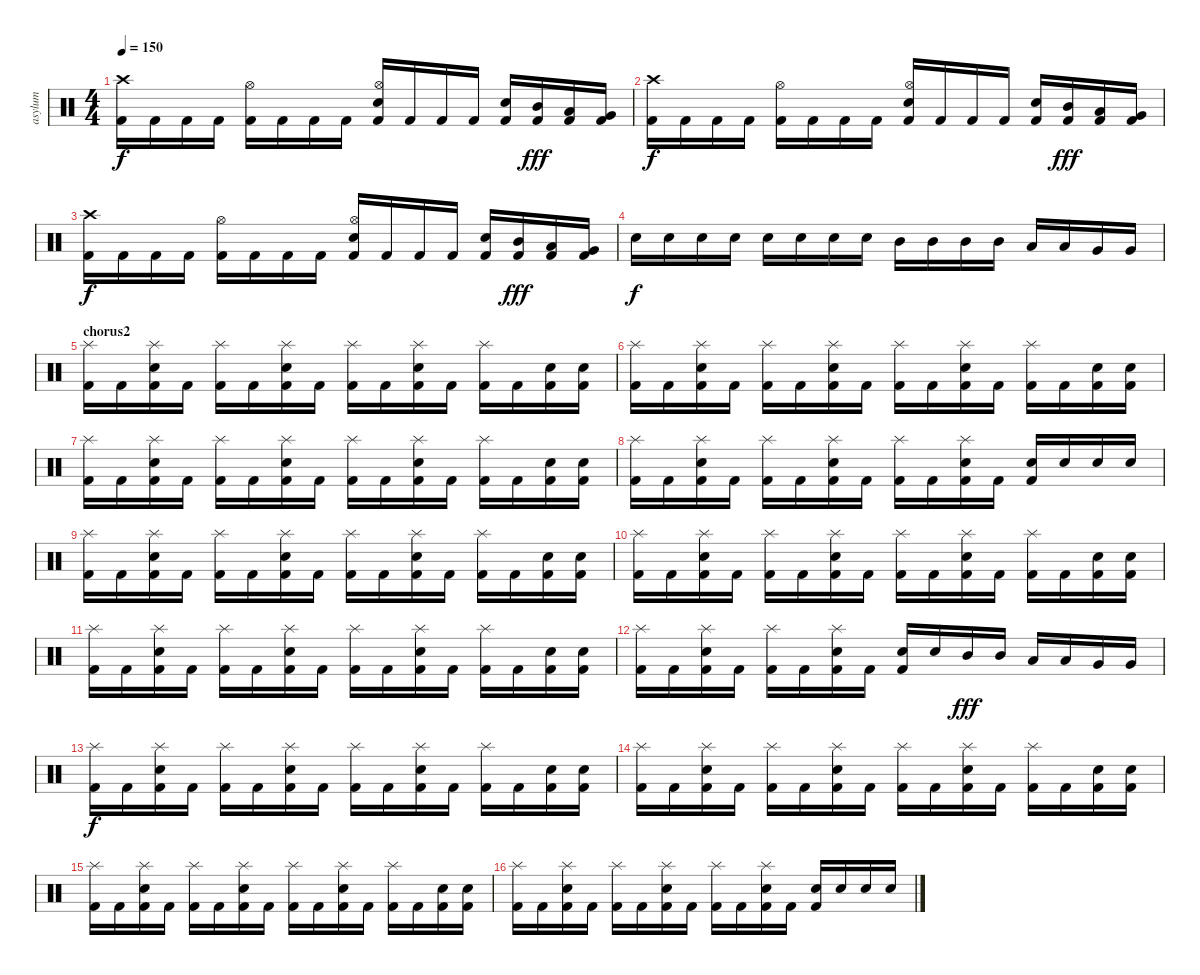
\track ("asylum" "asylum") {instrument percussion}
\staff {score}
\articulation defaults
\ts (4 4)
\tempo 150
\clef neutral
\ks c
("Crash high (hit)" "Kick (hit) 2").16{dy f} "Kick (hit) 2".16 "Kick (hit) 2".16 "Kick (hit) 2".16 ("Hi-Hat (open)" "Kick (hit) 2").16 "Kick (hit) 2".16 "Kick (hit) 2".16 "Kick (hit) 2".16 ("Hi-Hat (open)" "Electric Snare (hit)" "Kick (hit) 2").16 "Kick (hit) 2".16 "Kick (hit) 2".16 "Kick (hit) 2".16 ("Electric Snare (hit)" "Kick (hit) 2").16 ("Mid Tom (hit)" "Kick (hit) 2").16{dy fff} ("Low Tom (hit)" "Kick (hit) 2").16 ("Very Low Tom (hit)" "Kick (hit) 2").16 |
("Crash high (hit)" "Kick (hit) 2").16{dy f} "Kick (hit) 2".16 "Kick (hit) 2".16 "Kick (hit) 2".16 ("Hi-Hat (open)" "Kick (hit) 2").16 "Kick (hit) 2".16 "Kick (hit) 2".16 "Kick (hit) 2".16 ("Hi-Hat (open)" "Electric Snare (hit)" "Kick (hit) 2").16 "Kick (hit) 2".16 "Kick (hit) 2".16 "Kick (hit) 2".16 ("Electric Snare (hit)" "Kick (hit) 2").16 ("Mid Tom (hit)" "Kick (hit) 2").16{dy fff} ("Low Tom (hit)" "Kick (hit) 2").16 ("Very Low Tom (hit)" "Kick (hit) 2").16 |
("Crash high (hit)" "Kick (hit) 2").16{dy f} "Kick (hit) 2".16 "Kick (hit) 2".16 "Kick (hit) 2".16 ("Hi-Hat (open)" "Kick (hit) 2").16 "Kick (hit) 2".16 "Kick (hit) 2".16 "Kick (hit) 2".16 ("Hi-Hat (open)" "Electric Snare (hit)" "Kick (hit) 2").16 "Kick (hit) 2".16 "Kick (hit) 2".16 "Kick (hit) 2".16 ("Electric Snare (hit)" "Kick (hit) 2").16 ("Mid Tom (hit)" "Kick (hit) 2").16{dy fff} ("Low Tom (hit)" "Kick (hit) 2").16 ("Very Low Tom (hit)" "Kick (hit) 2").16 |
"Electric Snare (hit)".16{dy f} "Electric Snare (hit)".16 "Electric Snare (hit)".16 "Electric Snare (hit)".16 "Electric Snare (hit)".16 "Electric Snare (hit)".16 "Electric Snare (hit)".16 "Electric Snare (hit)".16 "Mid Tom (hit)".16 "Mid Tom (hit)".16 "Mid Tom (hit)".16 "Mid Tom (hit)".16 "Low Tom (hit)".16 "Low Tom (hit)".16 "Very Low Tom (hit)".16 "Very Low Tom (hit)".16 |
\section ("" "chorus2")
("Splash (hit)" "Kick (hit) 2").16 "Kick (hit) 2".16 ("Splash (hit)" "Electric Snare (hit)" "Kick (hit) 2").16 "Kick (hit) 2".16 ("Splash (hit)" "Kick (hit) 2").16 "Kick (hit) 2".16 ("Splash (hit)" "Electric Snare (hit)" "Kick (hit) 2").16 "Kick (hit) 2".16 ("Splash (hit)" "Kick (hit) 2").16 "Kick (hit) 2".16 ("Splash (hit)" "Electric Snare (hit)" "Kick (hit) 2").16 "Kick (hit) 2".16 ("Splash (hit)" "Kick (hit) 2").16 "Kick (hit) 2".16 ("Electric Snare (hit)" "Kick (hit) 2").16 ("Electric Snare (hit)" "Kick (hit) 2").16 |
("Splash (hit)" "Kick (hit) 2").16 "Kick (hit) 2".16 ("Splash (hit)" "Electric Snare (hit)" "Kick (hit) 2").16 "Kick (hit) 2".16 ("Splash (hit)" "Kick (hit) 2").16 "Kick (hit) 2".16 ("Splash (hit)" "Electric Snare (hit)" "Kick (hit) 2").16 "Kick (hit) 2".16 ("Splash (hit)" "Kick (hit) 2").16 "Kick (hit) 2".16 ("Splash (hit)" "Electric Snare (hit)" "Kick (hit) 2").16 "Kick (hit) 2".16 ("Splash (hit)" "Kick (hit) 2").16 "Kick (hit) 2".16 ("Electric Snare (hit)" "Kick (hit) 2").16 ("Electric Snare (hit)" "Kick (hit) 2").16 |
("Splash (hit)" "Kick (hit) 2").16 "Kick (hit) 2".16 ("Splash (hit)" "Electric Snare (hit)" "Kick (hit) 2").16 "Kick (hit) 2".16 ("Splash (hit)" "Kick (hit) 2").16 "Kick (hit) 2".16 ("Splash (hit)" "Electric Snare (hit)" "Kick (hit) 2").16 "Kick (hit) 2".16 ("Splash (hit)" "Kick (hit) 2").16 "Kick (hit) 2".16 ("Splash (hit)" "Electric Snare (hit)" "Kick (hit) 2").16 "Kick (hit) 2".16 ("Splash (hit)" "Kick (hit) 2").16 "Kick (hit) 2".16 ("Electric Snare (hit)" "Kick (hit) 2").16 ("Electric Snare (hit)" "Kick (hit) 2").16 |
("Splash (hit)" "Kick (hit) 2").16 "Kick (hit) 2".16 ("Splash (hit)" "Electric Snare (hit)" "Kick (hit) 2").16 "Kick (hit) 2".16 ("Splash (hit)" "Kick (hit) 2").16 "Kick (hit) 2".16 ("Splash (hit)" "Electric Snare (hit)" "Kick (hit) 2").16 "Kick (hit) 2".16 ("Splash (hit)" "Kick (hit) 2").16 "Kick (hit) 2".16 ("Splash (hit)" "Electric Snare (hit)" "Kick (hit) 2").16 "Kick (hit) 2".16 ("Electric Snare (hit)" "Kick (hit) 2").16 "Electric Snare (hit)".16 "Electric Snare (hit)".16 "Electric Snare (hit)".16 |
("Splash (hit)" "Kick (hit) 2").16 "Kick (hit) 2".16 ("Splash (hit)" "Electric Snare (hit)" "Kick (hit) 2").16 "Kick (hit) 2".16 ("Splash (hit)" "Kick (hit) 2").16 "Kick (hit) 2".16 ("Splash (hit)" "Electric Snare (hit)" "Kick (hit) 2").16 "Kick (hit) 2".16 ("Splash (hit)" "Kick (hit) 2").16 "Kick (hit) 2".16 ("Splash (hit)" "Electric Snare (hit)" "Kick (hit) 2").16 "Kick (hit) 2".16 ("Splash (hit)" "Kick (hit) 2").16 "Kick (hit) 2".16 ("Electric Snare (hit)" "Kick (hit) 2").16 ("Electric Snare (hit)" "Kick (hit) 2").16 |
("Splash (hit)" "Kick (hit) 2").16 "Kick (hit) 2".16 ("Splash (hit)" "Electric Snare (hit)" "Kick (hit) 2").16 "Kick (hit) 2".16 ("Splash (hit)" "Kick (hit) 2").16 "Kick (hit) 2".16 ("Splash (hit)" "Electric Snare (hit)" "Kick (hit) 2").16 "Kick (hit) 2".16 ("Splash (hit)" "Kick (hit) 2").16 "Kick (hit) 2".16 ("Splash (hit)" "Electric Snare (hit)" "Kick (hit) 2").16 "Kick (hit) 2".16 ("Splash (hit)" "Kick (hit) 2").16 "Kick (hit) 2".16 ("Electric Snare (hit)" "Kick (hit) 2").16 ("Electric Snare (hit)" "Kick (hit) 2").16 |
("Splash (hit)" "Kick (hit) 2").16 "Kick (hit) 2".16 ("Splash (hit)" "Electric Snare (hit)" "Kick (hit) 2").16 "Kick (hit) 2".16 ("Splash (hit)" "Kick (hit) 2").16 "Kick (hit) 2".16 ("Splash (hit)" "Electric Snare (hit)" "Kick (hit) 2").16 "Kick (hit) 2".16 ("Splash (hit)" "Kick (hit) 2").16 "Kick (hit) 2".16 ("Splash (hit)" "Electric Snare (hit)" "Kick (hit) 2").16 "Kick (hit) 2".16 ("Splash (hit)" "Kick (hit) 2").16 "Kick (hit) 2".16 ("Electric Snare (hit)" "Kick (hit) 2").16 ("Electric Snare (hit)" "Kick (hit) 2").16 |
("Splash (hit)" "Kick (hit) 2").16 "Kick (hit) 2".16 ("Splash (hit)" "Electric Snare (hit)" "Kick (hit) 2").16 "Kick (hit) 2".16 ("Splash (hit)" "Kick (hit) 2").16 "Kick (hit) 2".16 ("Splash (hit)" "Electric Snare (hit)" "Kick (hit) 2").16 "Kick (hit) 2".16 ("Electric Snare (hit)" "Kick (hit) 2").16 "Electric Snare (hit)".16 "Mid Tom (hit)".16{dy fff} "Mid Tom (hit)".16 "Low Tom (hit)".16 "Low Tom (hit)".16 "Very Low Tom (hit)".16 "Very Low Tom (hit)".16 |
("Splash (hit)" "Kick (hit) 2").16{dy f} "Kick (hit) 2".16 ("Splash (hit)" "Electric Snare (hit)" "Kick (hit) 2").16 "Kick (hit) 2".16 ("Splash (hit)" "Kick (hit) 2").16 "Kick (hit) 2".16 ("Splash (hit)" "Electric Snare (hit)" "Kick (hit) 2").16 "Kick (hit) 2".16 ("Splash (hit)" "Kick (hit) 2").16 "Kick (hit) 2".16 ("Splash (hit)" "Electric Snare (hit)" "Kick (hit) 2").16 "Kick (hit) 2".16 ("Splash (hit)" "Kick (hit) 2").16 "Kick (hit) 2".16 ("Electric Snare (hit)" "Kick (hit) 2").16 ("Electric Snare (hit)" "Kick (hit) 2").16 |
("Splash (hit)" "Kick (hit) 2").16 "Kick (hit) 2".16 ("Splash (hit)" "Electric Snare (hit)" "Kick (hit) 2").16 "Kick (hit) 2".16 ("Splash (hit)" "Kick (hit) 2").16 "Kick (hit) 2".16 ("Splash (hit)" "Electric Snare (hit)" "Kick (hit) 2").16 "Kick (hit) 2".16 ("Splash (hit)" "Kick (hit) 2").16 "Kick (hit) 2".16 ("Splash (hit)" "Electric Snare (hit)" "Kick (hit) 2").16 "Kick (hit) 2".16 ("Splash (hit)" "Kick (hit) 2").16 "Kick (hit) 2".16 ("Electric Snare (hit)" "Kick (hit) 2").16 ("Electric Snare (hit)" "Kick (hit) 2").16 |
("Splash (hit)" "Kick (hit) 2").16 "Kick (hit) 2".16 ("Splash (hit)" "Electric Snare (hit)" "Kick (hit) 2").16 "Kick (hit) 2".16 ("Splash (hit)" "Kick (hit) 2").16 "Kick (hit) 2".16 ("Splash (hit)" "Electric Snare (hit)" "Kick (hit) 2").16 "Kick (hit) 2".16 ("Splash (hit)" "Kick (hit) 2").16 "Kick (hit) 2".16 ("Splash (hit)" "Electric Snare (hit)" "Kick (hit) 2").16 "Kick (hit) 2".16 ("Splash (hit)" "Kick (hit) 2").16 "Kick (hit) 2".16 ("Electric Snare (hit)" "Kick (hit) 2").16 ("Electric Snare (hit)" "Kick (hit) 2").16 |
("Splash (hit)" "Kick (hit) 2").16 "Kick (hit) 2".16 ("Splash (hit)" "Electric Snare (hit)" "Kick (hit) 2").16 "Kick (hit) 2".16 ("Splash (hit)" "Kick (hit) 2").16 "Kick (hit) 2".16 ("Splash (hit)" "Electric Snare (hit)" "Kick (hit) 2").16 "Kick (hit) 2".16 ("Splash (hit)" "Kick (hit) 2").16 "Kick (hit) 2".16 ("Splash (hit)" "Electric Snare (hit)" "Kick (hit) 2").16 "Kick (hit) 2".16 ("Electric Snare (hit)" "Kick (hit) 2").16 "Electric Snare (hit)".16 "Electric Snare (hit)".16 "Electric Snare (hit)".16
